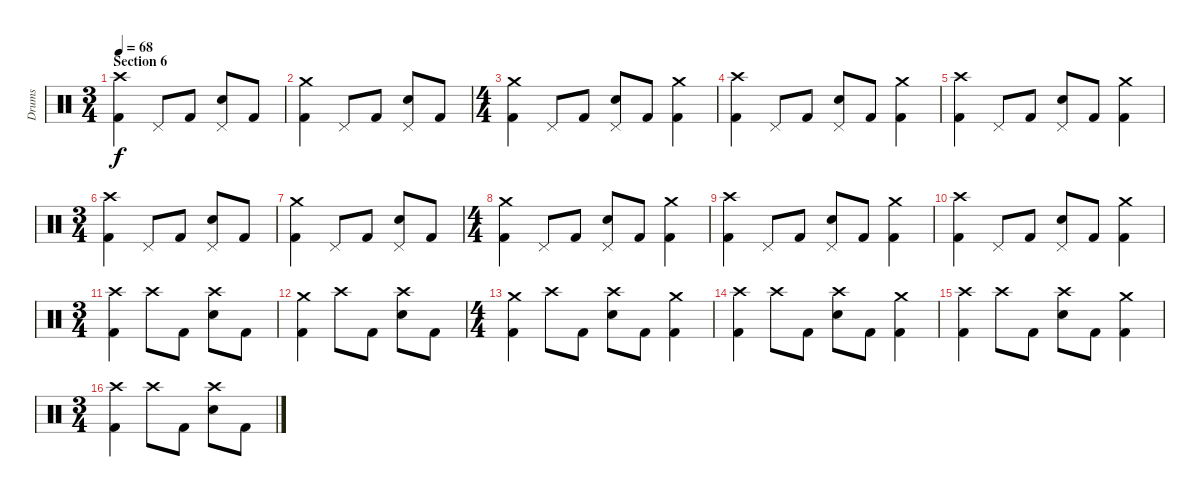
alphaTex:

\track ("Drums" "Drums") {instrument percussion}
\staff {score}
\articulation defaults
\ts (3 4)
\section ("" "Section 6")
\tempo 68
\clef neutral
\ks c
("Crash high (hit)" "Kick (hit) 2").4{dy f} "Pedal Hi-Hat (hit)".8 "Kick (hit) 2".8 ("Pedal Hi-Hat (hit)" "Electric Snare (hit)").8 "Kick (hit) 2".8 |
("Crash medium (hit)" "Kick (hit) 2").4 "Pedal Hi-Hat (hit)".8 "Kick (hit) 2".8 ("Pedal Hi-Hat (hit)" "Electric Snare (hit)").8 "Kick (hit) 2".8 |
\ts (4 4)
("Crash medium (hit)" "Kick (hit) 2").4 "Pedal Hi-Hat (hit)".8 "Kick (hit) 2".8 ("Pedal Hi-Hat (hit)" "Electric Snare (hit)").8 "Kick (hit) 2".8 ("Crash medium (hit)" "Kick (hit) 2").4 |
("Crash high (hit)" "Kick (hit) 2").4 "Pedal Hi-Hat (hit)".8 "Kick (hit) 2".8 ("Pedal Hi-Hat (hit)" "Electric Snare (hit)").8 "Kick (hit) 2".8 ("Crash medium (hit)" "Kick (hit) 2").4 |
("Crash high (hit)" "Kick (hit) 2").4 "Pedal Hi-Hat (hit)".8 "Kick (hit) 2".8 ("Pedal Hi-Hat (hit)" "Electric Snare (hit)").8 "Kick (hit) 2".8 ("Crash medium (hit)" "Kick (hit) 2").4 |
\ts (3 4)
("Crash high (hit)" "Kick (hit) 2").4 "Pedal Hi-Hat (hit)".8 "Kick (hit) 2".8 ("Pedal Hi-Hat (hit)" "Electric Snare (hit)").8 "Kick (hit) 2".8 |
("Crash medium (hit)" "Kick (hit) 2").4 "Pedal Hi-Hat (hit)".8 "Kick (hit) 2".8 ("Pedal Hi-Hat (hit)" "Electric Snare (hit)").8 "Kick (hit) 2".8 |
\ts (4 4)
("Crash medium (hit)" "Kick (hit) 2").4 "Pedal Hi-Hat (hit)".8 "Kick (hit) 2".8 ("Pedal Hi-Hat (hit)" "Electric Snare (hit)").8 "Kick (hit) 2".8 ("Crash medium (hit)" "Kick (hit) 2").4 |
("Crash high (hit)" "Kick (hit) 2").4 "Pedal Hi-Hat (hit)".8 "Kick (hit) 2".8 ("Pedal Hi-Hat (hit)" "Electric Snare (hit)").8 "Kick (hit) 2".8 ("Crash medium (hit)" "Kick (hit) 2").4 |
("Crash high (hit)" "Kick (hit) 2").4 "Pedal Hi-Hat (hit)".8 "Kick (hit) 2".8 ("Pedal Hi-Hat (hit)" "Electric Snare (hit)").8 "Kick (hit) 2".8 ("Crash medium (hit)" "Kick (hit) 2").4 |
\ts (3 4)
("Crash high (hit)" "Kick (hit) 2").4 "Crash high (hit)".8 "Kick (hit) 2".8 ("Crash high (hit)" "Electric Snare (hit)").8 "Kick (hit) 2".8 |
("Crash medium (hit)" "Kick (hit) 2").4 "Crash high (hit)".8 "Kick (hit) 2".8 ("Crash high (hit)" "Electric Snare (hit)").8 "Kick (hit) 2".8 |
\ts (4 4)
("Crash medium (hit)" "Kick (hit) 2").4 "Crash high (hit)".8 "Kick (hit) 2".8 ("Crash high (hit)" "Electric Snare (hit)").8 "Kick (hit) 2".8 ("Crash medium (hit)" "Kick (hit) 2").4 |
("Crash high (hit)" "Kick (hit) 2").4 "Crash high (hit)".8 "Kick (hit) 2".8 ("Crash high (hit)" "Electric Snare (hit)").8 "Kick (hit) 2".8 ("Crash medium (hit)" "Kick (hit) 2").4 |
("Crash high (hit)" "Kick (hit) 2").4 "Crash high (hit)".8 "Kick (hit) 2".8 ("Crash high (hit)" "Electric Snare (hit)").8 "Kick (hit) 2".8 ("Crash medium (hit)" "Kick (hit) 2").4 |
\ts (3 4)
("Crash high (hit)" "Kick (hit) 2").4 "Crash high (hit)".8 "Kick (hit) 2".8 ("Crash high (hit)" "Electric Snare (hit)").8 "Kick (hit) 2".8
